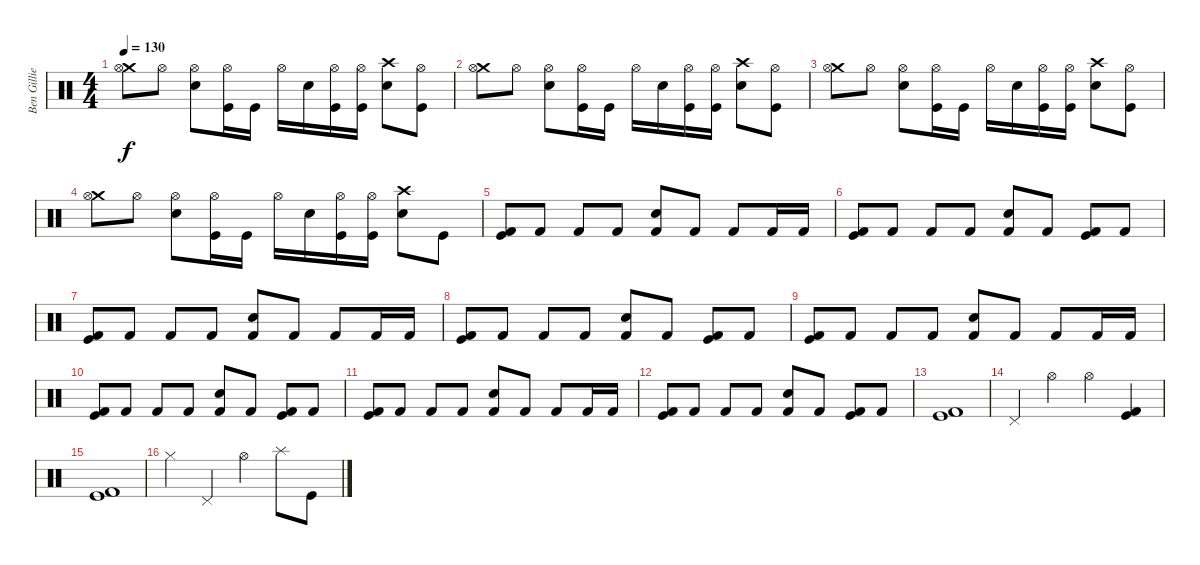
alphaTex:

\track ("Ben Gillies (Drums)" "Ben Gillie") {instrument percussion}
\staff {score}
\articulation defaults
\ts (4 4)
\tempo 130
\clef neutral
\ks c
("Crash medium (hit)" "Hi-Hat (open)").8{dy f} "Hi-Hat (open)".8 ("Electric Snare (hit)" "Hi-Hat (open)").8 ("Hi-Hat (open)" "Kick (hit)").16 "Kick (hit)".16 "Hi-Hat (open)".16 "Electric Snare (hit)".16 ("Hi-Hat (open)" "Kick (hit)").16 ("Hi-Hat (open)" "Kick (hit)").16 ("Crash high (hit)" "Electric Snare (hit)").8 ("Hi-Hat (open)" "Kick (hit)").8 |
("Crash medium (hit)" "Hi-Hat (open)").8 "Hi-Hat (open)".8 ("Electric Snare (hit)" "Hi-Hat (open)").8 ("Hi-Hat (open)" "Kick (hit)").16 "Kick (hit)".16 "Hi-Hat (open)".16 "Electric Snare (hit)".16 ("Hi-Hat (open)" "Kick (hit)").16 ("Hi-Hat (open)" "Kick (hit)").16 ("Crash high (hit)" "Electric Snare (hit)").8 ("Hi-Hat (open)" "Kick (hit)").8 |
("Crash medium (hit)" "Hi-Hat (open)").8 "Hi-Hat (open)".8 ("Electric Snare (hit)" "Hi-Hat (open)").8 ("Hi-Hat (open)" "Kick (hit)").16 "Kick (hit)".16 "Hi-Hat (open)".16 "Electric Snare (hit)".16 ("Hi-Hat (open)" "Kick (hit)").16 ("Hi-Hat (open)" "Kick (hit)").16 ("Crash high (hit)" "Electric Snare (hit)").8 ("Hi-Hat (open)" "Kick (hit)").8 |
("Crash medium (hit)" "Hi-Hat (open)").8 "Hi-Hat (open)".8 ("Electric Snare (hit)" "Hi-Hat (open)").8 ("Hi-Hat (open)" "Kick (hit)").16 "Kick (hit)".16 "Hi-Hat (open)".16 "Electric Snare (hit)".16 ("Hi-Hat (open)" "Kick (hit)").16 ("Hi-Hat (open)" "Kick (hit)").16 ("Crash high (hit)" "Electric Snare (hit)").8 "Kick (hit)".8 |
("Kick (hit) 2" "Kick (hit)").8 "Kick (hit) 2".8 "Kick (hit) 2".8 "Kick (hit) 2".8 ("Electric Snare (hit)" "Kick (hit) 2").8 "Kick (hit) 2".8 "Kick (hit) 2".8 "Kick (hit) 2".16 "Kick (hit) 2".16 |
("Kick (hit) 2" "Kick (hit)").8 "Kick (hit) 2".8 "Kick (hit) 2".8 "Kick (hit) 2".8 ("Electric Snare (hit)" "Kick (hit) 2").8 "Kick (hit) 2".8 ("Kick (hit) 2" "Kick (hit)").8 "Kick (hit) 2".8 |
("Kick (hit) 2" "Kick (hit)").8 "Kick (hit) 2".8 "Kick (hit) 2".8 "Kick (hit) 2".8 ("Electric Snare (hit)" "Kick (hit) 2").8 "Kick (hit) 2".8 "Kick (hit) 2".8 "Kick (hit) 2".16 "Kick (hit) 2".16 |
("Kick (hit) 2" "Kick (hit)").8 "Kick (hit) 2".8 "Kick (hit) 2".8 "Kick (hit) 2".8 ("Electric Snare (hit)" "Kick (hit) 2").8 "Kick (hit) 2".8 ("Kick (hit) 2" "Kick (hit)").8 "Kick (hit) 2".8 |
("Kick (hit) 2" "Kick (hit)").8 "Kick (hit) 2".8 "Kick (hit) 2".8 "Kick (hit) 2".8 ("Electric Snare (hit)" "Kick (hit) 2").8 "Kick (hit) 2".8 "Kick (hit) 2".8 "Kick (hit) 2".16 "Kick (hit) 2".16 |
("Kick (hit) 2" "Kick (hit)").8 "Kick (hit) 2".8 "Kick (hit) 2".8 "Kick (hit) 2".8 ("Electric Snare (hit)" "Kick (hit) 2").8 "Kick (hit) 2".8 ("Kick (hit) 2" "Kick (hit)").8 "Kick (hit) 2".8 |
("Kick (hit) 2" "Kick (hit)").8 "Kick (hit) 2".8 "Kick (hit) 2".8 "Kick (hit) 2".8 ("Electric Snare (hit)" "Kick (hit) 2").8 "Kick (hit) 2".8 "Kick (hit) 2".8 "Kick (hit) 2".16 "Kick (hit) 2".16 |
("Kick (hit) 2" "Kick (hit)").8 "Kick (hit) 2".8 "Kick (hit) 2".8 "Kick (hit) 2".8 ("Electric Snare (hit)" "Kick (hit) 2").8 "Kick (hit) 2".8 ("Kick (hit) 2" "Kick (hit)").8 "Kick (hit) 2".8 |
("Kick (hit) 2" "Kick (hit)").1 |
"Pedal Hi-Hat (hit)".4 "Hi-Hat (open)".4 "Hi-Hat (open)".4 ("Kick (hit) 2" "Kick (hit)").4 |
("Kick (hit) 2" "Kick (hit)").1 |
"Hi-Hat (closed)".4 "Pedal Hi-Hat (hit)".4 "Hi-Hat (open)".4 "Splash (hit)".8 "Kick (hit)".8
